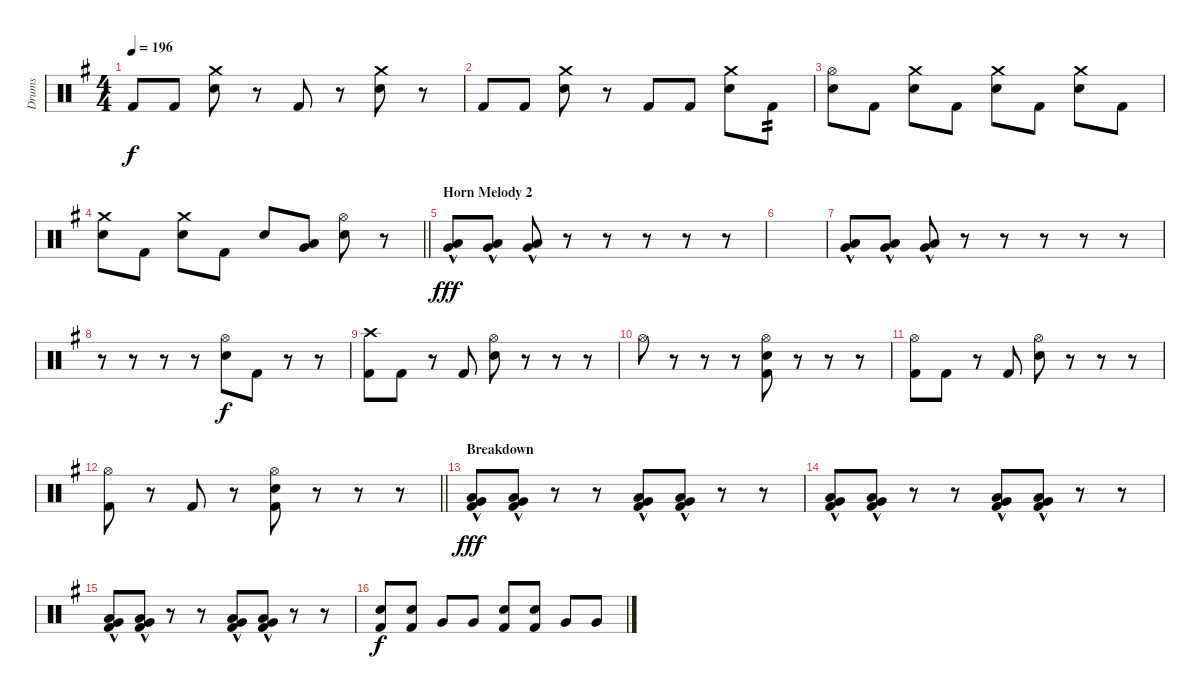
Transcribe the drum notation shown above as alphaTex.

\track ("Drums" "Drums") {instrument percussion}
\staff {score}
\articulation defaults
\ts (4 4)
\tempo 196
\clef neutral
\ks eminor "Kick (hit) 2".8{dy f} "Kick (hit) 2".8
("Crash medium (hit)" "Electric Snare (hit)").8 r.8 "Kick (hit) 2".8 r.8 ("Crash medium (hit)" "Electric Snare (hit)").8 r.8 |
"Kick (hit) 2".8 "Kick (hit) 2".8 ("Crash medium (hit)" "Electric Snare (hit)").8 r.8 "Kick (hit) 2".8 "Kick (hit) 2".8 ("Crash medium (hit)" "Electric Snare (hit)").8 "Kick (hit) 2".8{tp 2} |
("Hi-Hat (open)" "Electric Snare (hit)").8 "Kick (hit) 2".8 ("Crash medium (hit)" "Electric Snare (hit)").8 "Kick (hit) 2".8 ("Crash medium (hit)" "Electric Snare (hit)").8 "Kick (hit) 2".8 ("Crash medium (hit)" "Electric Snare (hit)").8 "Kick (hit) 2".8 |
\barLineRight lightlight
("Crash medium (hit)" "Electric Snare (hit)").8 "Kick (hit) 2".8 ("Crash medium (hit)" "Electric Snare (hit)").8 "Kick (hit) 2".8 "Electric Snare (hit)".8 ("Low Tom (hit)" "Very Low Tom (hit)").8 ("Hi-Hat (open)" "Electric Snare (hit)").8 r.8 |
\section ("" "Horn Melody 2")
("Low Tom (hit)"{hac} "Very Low Tom (hit)"{hac}).8{dy fff} ("Low Tom (hit)"{hac} "Very Low Tom (hit)"{hac}).8 ("Low Tom (hit)"{hac} "Very Low Tom (hit)"{hac}).8 r.8 r.8 r.8 r.8 r.8 |
|
("Low Tom (hit)"{hac} "Very Low Tom (hit)"{hac}).8 ("Low Tom (hit)"{hac} "Very Low Tom (hit)"{hac}).8 ("Low Tom (hit)"{hac} "Very Low Tom (hit)"{hac}).8 r.8 r.8 r.8 r.8 r.8 |
r.8 r.8 r.8 r.8 ("Hi-Hat (open)" "Electric Snare (hit)").8{dy f} "Kick (hit) 2".8 r.8 r.8 |
("Crash high (hit)" "Kick (hit) 2").8 "Kick (hit) 2".8 r.8 "Kick (hit) 2".8 ("Hi-Hat (open)" "Electric Snare (hit)").8 r.8 r.8 r.8 |
"Hi-Hat (open)".8 r.8 r.8 r.8 ("Hi-Hat (open)" "Electric Snare (hit)" "Kick (hit) 2").8 r.8 r.8 r.8 |
("Hi-Hat (open)" "Kick (hit) 2").8 "Kick (hit) 2".8 r.8 "Kick (hit) 2".8 ("Hi-Hat (open)" "Electric Snare (hit)").8 r.8 r.8 r.8 |
\barLineRight lightlight
("Hi-Hat (open)" "Kick (hit) 2").8 r.8 "Kick (hit) 2".8 r.8 ("Hi-Hat (open)" "Electric Snare (hit)" "Kick (hit) 2").8 r.8 r.8 r.8 |
\section ("" "Breakdown")
("Low Tom (hit)"{hac} "Very Low Tom (hit)"{hac} "Kick (hit) 2").8{dy fff} ("Low Tom (hit)"{hac} "Very Low Tom (hit)"{hac} "Kick (hit) 2").8 r.8 r.8 ("Low Tom (hit)"{hac} "Very Low Tom (hit)"{hac} "Kick (hit) 2").8 ("Low Tom (hit)"{hac} "Very Low Tom (hit)"{hac} "Kick (hit) 2").8 r.8 r.8 |
("Low Tom (hit)"{hac} "Very Low Tom (hit)"{hac} "Kick (hit) 2").8 ("Low Tom (hit)"{hac} "Very Low Tom (hit)"{hac} "Kick (hit) 2").8 r.8 r.8 ("Low Tom (hit)"{hac} "Very Low Tom (hit)"{hac} "Kick (hit) 2").8 ("Low Tom (hit)"{hac} "Very Low Tom (hit)"{hac} "Kick (hit) 2").8 r.8 r.8 |
("Low Tom (hit)"{hac} "Very Low Tom (hit)"{hac} "Kick (hit) 2").8 ("Low Tom (hit)"{hac} "Very Low Tom (hit)"{hac} "Kick (hit) 2").8 r.8 r.8 ("Low Tom (hit)"{hac} "Very Low Tom (hit)"{hac} "Kick (hit) 2").8 ("Low Tom (hit)"{hac} "Very Low Tom (hit)"{hac} "Kick (hit) 2").8 r.8 r.8 |
("Electric Snare (hit)" "Kick (hit) 2").8{dy f} ("Electric Snare (hit)" "Kick (hit) 2").8 "Very Low Tom (hit)".8{balance 4} "Very Low Tom (hit)".8 ("Electric Snare (hit)" "Kick (hit) 2").8{balance 8} ("Electric Snare (hit)" "Kick (hit) 2").8 "Very Low Tom (hit)".8{balance 12} "Very Low Tom (hit)".8
